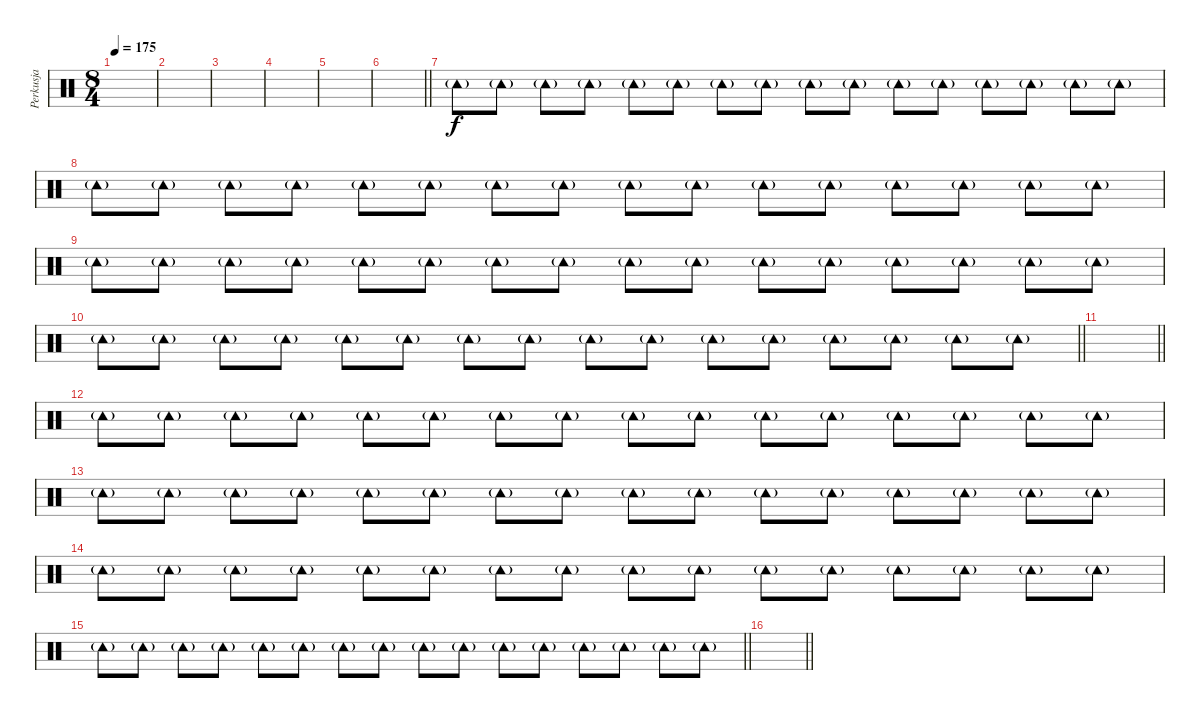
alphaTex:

\track ("Perkusja" "Perkusja") {instrument percussion}
\staff {score}
\articulation defaults
\ts (8 4)
\tempo 175
\clef neutral
\ks c
|
|
|
|
|
\barLineRight lightlight
|
"Tambourine (hit)"{g}.8 "Tambourine (hit)"{g}.8 "Tambourine (hit)"{g}.8 "Tambourine (hit)"{g}.8 "Tambourine (hit)"{g}.8 "Tambourine (hit)"{g}.8 "Tambourine (hit)"{g}.8 "Tambourine (hit)"{g}.8 "Tambourine (hit)"{g}.8 "Tambourine (hit)"{g}.8 "Tambourine (hit)"{g}.8 "Tambourine (hit)"{g}.8 "Tambourine (hit)"{g}.8 "Tambourine (hit)"{g}.8 "Tambourine (hit)"{g}.8 "Tambourine (hit)"{g}.8 |
"Tambourine (hit)"{g}.8 "Tambourine (hit)"{g}.8 "Tambourine (hit)"{g}.8 "Tambourine (hit)"{g}.8 "Tambourine (hit)"{g}.8 "Tambourine (hit)"{g}.8 "Tambourine (hit)"{g}.8 "Tambourine (hit)"{g}.8 "Tambourine (hit)"{g}.8 "Tambourine (hit)"{g}.8 "Tambourine (hit)"{g}.8 "Tambourine (hit)"{g}.8 "Tambourine (hit)"{g}.8 "Tambourine (hit)"{g}.8 "Tambourine (hit)"{g}.8 "Tambourine (hit)"{g}.8 |
"Tambourine (hit)"{g}.8 "Tambourine (hit)"{g}.8 "Tambourine (hit)"{g}.8 "Tambourine (hit)"{g}.8 "Tambourine (hit)"{g}.8 "Tambourine (hit)"{g}.8 "Tambourine (hit)"{g}.8 "Tambourine (hit)"{g}.8 "Tambourine (hit)"{g}.8 "Tambourine (hit)"{g}.8 "Tambourine (hit)"{g}.8 "Tambourine (hit)"{g}.8 "Tambourine (hit)"{g}.8 "Tambourine (hit)"{g}.8 "Tambourine (hit)"{g}.8 "Tambourine (hit)"{g}.8 |
\barLineRight lightlight "Tambourine (hit)"{g}.8 "Tambourine (hit)"{g}.8 "Tambourine (hit)"{g}.8 "Tambourine (hit)"{g}.8 "Tambourine (hit)"{g}.8 "Tambourine (hit)"{g}.8 "Tambourine (hit)"{g}.8 "Tambourine (hit)"{g}.8 "Tambourine (hit)"{g}.8 "Tambourine (hit)"{g}.8 "Tambourine (hit)"{g}.8 "Tambourine (hit)"{g}.8 "Tambourine (hit)"{g}.8 "Tambourine (hit)"{g}.8 "Tambourine (hit)"{g}.8 "Tambourine (hit)"{g}.8
|
\barLineRight lightlight
|
"Tambourine (hit)"{g}.8 "Tambourine (hit)"{g}.8 "Tambourine (hit)"{g}.8 "Tambourine (hit)"{g}.8 "Tambourine (hit)"{g}.8 "Tambourine (hit)"{g}.8 "Tambourine (hit)"{g}.8 "Tambourine (hit)"{g}.8 "Tambourine (hit)"{g}.8 "Tambourine (hit)"{g}.8 "Tambourine (hit)"{g}.8 "Tambourine (hit)"{g}.8 "Tambourine (hit)"{g}.8 "Tambourine (hit)"{g}.8 "Tambourine (hit)"{g}.8 "Tambourine (hit)"{g}.8 |
"Tambourine (hit)"{g}.8 "Tambourine (hit)"{g}.8 "Tambourine (hit)"{g}.8 "Tambourine (hit)"{g}.8 "Tambourine (hit)"{g}.8 "Tambourine (hit)"{g}.8 "Tambourine (hit)"{g}.8 "Tambourine (hit)"{g}.8 "Tambourine (hit)"{g}.8 "Tambourine (hit)"{g}.8 "Tambourine (hit)"{g}.8 "Tambourine (hit)"{g}.8 "Tambourine (hit)"{g}.8 "Tambourine (hit)"{g}.8 "Tambourine (hit)"{g}.8 "Tambourine (hit)"{g}.8 |
"Tambourine (hit)"{g}.8 "Tambourine (hit)"{g}.8 "Tambourine (hit)"{g}.8 "Tambourine (hit)"{g}.8 "Tambourine (hit)"{g}.8 "Tambourine (hit)"{g}.8 "Tambourine (hit)"{g}.8 "Tambourine (hit)"{g}.8 "Tambourine (hit)"{g}.8 "Tambourine (hit)"{g}.8 "Tambourine (hit)"{g}.8 "Tambourine (hit)"{g}.8 "Tambourine (hit)"{g}.8 "Tambourine (hit)"{g}.8 "Tambourine (hit)"{g}.8 "Tambourine (hit)"{g}.8 |
\barLineRight lightlight "Tambourine (hit)"{g}.8 "Tambourine (hit)"{g}.8 "Tambourine (hit)"{g}.8 "Tambourine (hit)"{g}.8 "Tambourine (hit)"{g}.8 "Tambourine (hit)"{g}.8 "Tambourine (hit)"{g}.8 "Tambourine (hit)"{g}.8 "Tambourine (hit)"{g}.8 "Tambourine (hit)"{g}.8 "Tambourine (hit)"{g}.8 "Tambourine (hit)"{g}.8 "Tambourine (hit)"{g}.8 "Tambourine (hit)"{g}.8 "Tambourine (hit)"{g}.8 "Tambourine (hit)"{g}.8
|
\barLineRight lightlight
